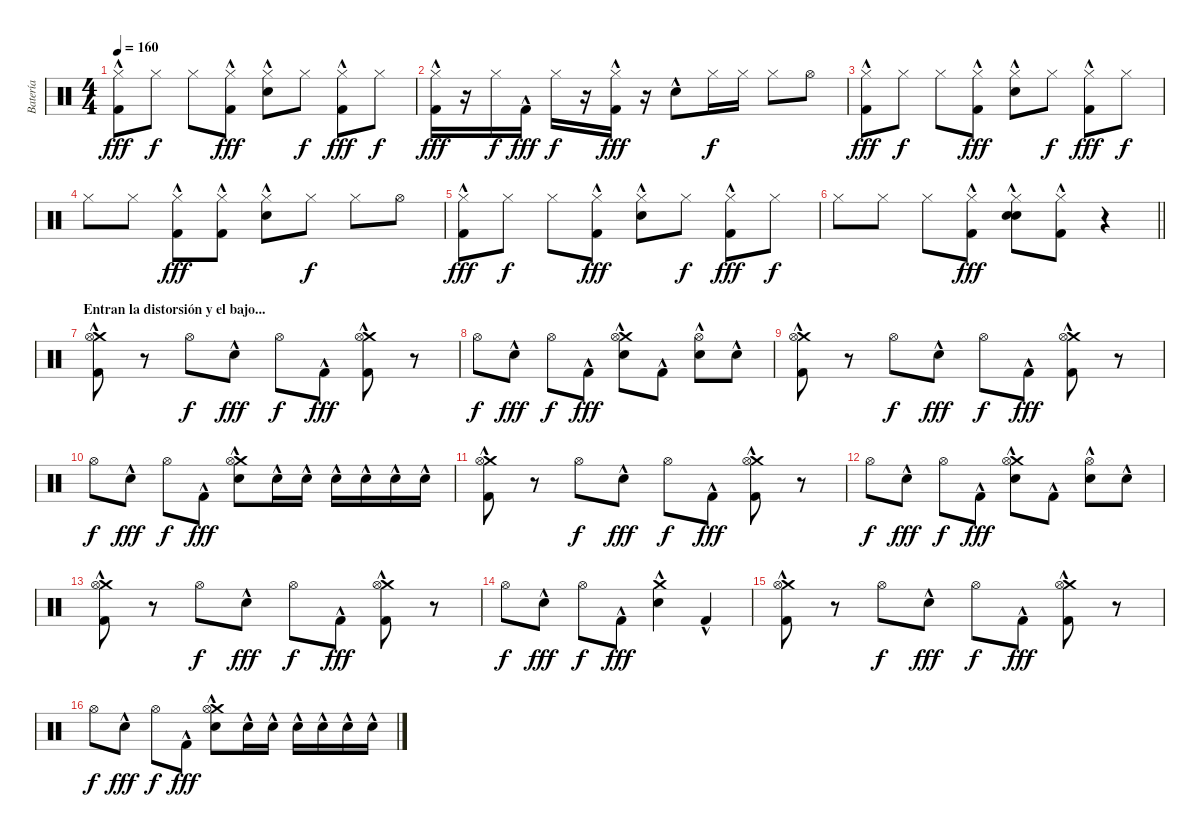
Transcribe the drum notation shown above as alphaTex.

\track ("Batería" "Batería") {instrument percussion}
\staff {score}
\articulation defaults
\ts (4 4)
\tempo 160
\clef neutral
\ks c
("Hi-Hat (closed)" "Kick (hit) 2"{hac}).8{dy fff} "Hi-Hat (closed)".8{dy f} "Hi-Hat (closed)".8 ("Hi-Hat (closed)" "Kick (hit) 2"{hac}).8{dy fff} ("Snare (hit) 2"{hac} "Hi-Hat (closed)").8 "Hi-Hat (closed)".8{dy f} ("Hi-Hat (closed)" "Kick (hit) 2"{hac}).8{dy fff} "Hi-Hat (closed)".8{dy f} |
("Hi-Hat (closed)" "Kick (hit) 2"{hac}).16{dy fff} r.16 "Hi-Hat (closed)".16{dy f} "Kick (hit) 2"{hac}.16{dy fff} "Hi-Hat (closed)".16{dy f} r.16 ("Hi-Hat (closed)" "Kick (hit) 2"{hac}).16{dy fff} r.16 "Snare (hit) 2"{hac}.8 "Hi-Hat (closed)".16{dy f} "Hi-Hat (closed)".16 "Hi-Hat (closed)".8 "Hi-Hat (open)".8 |
("Hi-Hat (closed)" "Kick (hit) 2"{hac}).8{dy fff} "Hi-Hat (closed)".8{dy f} "Hi-Hat (closed)".8 ("Hi-Hat (closed)" "Kick (hit) 2"{hac}).8{dy fff} ("Snare (hit) 2"{hac} "Hi-Hat (closed)").8 "Hi-Hat (closed)".8{dy f} ("Hi-Hat (closed)" "Kick (hit) 2"{hac}).8{dy fff} "Hi-Hat (closed)".8{dy f} |
"Hi-Hat (closed)".8 "Hi-Hat (closed)".8 ("Hi-Hat (closed)" "Kick (hit) 2"{hac}).8{dy fff} ("Hi-Hat (closed)" "Kick (hit) 2"{hac}).8 ("Snare (hit) 2"{hac} "Hi-Hat (closed)").8 "Hi-Hat (closed)".8{dy f} "Hi-Hat (closed)".8 "Hi-Hat (open)".8 |
("Hi-Hat (closed)" "Kick (hit) 2"{hac}).8{dy fff} "Hi-Hat (closed)".8{dy f} "Hi-Hat (closed)".8 ("Hi-Hat (closed)" "Kick (hit) 2"{hac}).8{dy fff} ("Snare (hit) 2"{hac} "Hi-Hat (closed)").8 "Hi-Hat (closed)".8{dy f} ("Hi-Hat (closed)" "Kick (hit) 2"{hac}).8{dy fff} "Hi-Hat (closed)".8{dy f} |
\barLineRight lightlight "Hi-Hat (closed)".8 "Hi-Hat (closed)".8 "Hi-Hat (closed)".8
("Hi-Hat (closed)" "Kick (hit) 2"{hac}).8{dy fff} ("Snare (hit) 2"{hac} "Snare (hit) 2"{hac} "Hi-Hat (closed)").8 ("Hi-Hat (closed)" "Kick (hit) 2"{hac}).8 r.4 |
\section ("" "Entran la distorsión y el bajo...")
("Crash medium (hit)"{hac} "Hi-Hat (open)" "Kick (hit) 2"{hac}).8 r.8 "Hi-Hat (open)".8{dy f} "Snare (hit) 2"{hac}.8{dy fff} "Hi-Hat (open)".8{dy f} "Kick (hit) 2"{hac}.8{dy fff} ("Crash medium (hit)"{hac} "Hi-Hat (open)" "Kick (hit) 2"{hac}).8 r.8 |
"Hi-Hat (open)".8{dy f} "Snare (hit) 2"{hac}.8{dy fff} "Hi-Hat (open)".8{dy f} "Kick (hit) 2"{hac}.8{dy fff} ("Crash medium (hit)"{hac} "Snare (hit) 2"{hac} "Hi-Hat (open)").8 "Kick (hit) 2"{hac}.8 ("Snare (hit) 2"{hac} "Hi-Hat (open)").8 "Snare (hit) 2"{hac}.8 |
("Crash medium (hit)"{hac} "Hi-Hat (open)" "Kick (hit) 2"{hac}).8 r.8 "Hi-Hat (open)".8{dy f} "Snare (hit) 2"{hac}.8{dy fff} "Hi-Hat (open)".8{dy f} "Kick (hit) 2"{hac}.8{dy fff} ("Crash medium (hit)"{hac} "Hi-Hat (open)" "Kick (hit) 2"{hac}).8 r.8 |
"Hi-Hat (open)".8{dy f} "Snare (hit) 2"{hac}.8{dy fff} "Hi-Hat (open)".8{dy f} "Kick (hit) 2"{hac}.8{dy fff} ("Crash medium (hit)"{hac} "Snare (hit) 2"{hac} "Hi-Hat (open)").8 "Snare (hit) 2"{hac}.16 "Snare (hit) 2"{hac}.16 "Snare (hit) 2"{hac}.16 "Snare (hit) 2"{hac}.16 "Snare (hit) 2"{hac}.16 "Snare (hit) 2"{hac}.16 |
("Crash medium (hit)"{hac} "Hi-Hat (open)" "Kick (hit) 2"{hac}).8 r.8 "Hi-Hat (open)".8{dy f} "Snare (hit) 2"{hac}.8{dy fff} "Hi-Hat (open)".8{dy f} "Kick (hit) 2"{hac}.8{dy fff} ("Crash medium (hit)"{hac} "Hi-Hat (open)" "Kick (hit) 2"{hac}).8 r.8 |
"Hi-Hat (open)".8{dy f} "Snare (hit) 2"{hac}.8{dy fff} "Hi-Hat (open)".8{dy f} "Kick (hit) 2"{hac}.8{dy fff} ("Crash medium (hit)"{hac} "Snare (hit) 2"{hac} "Hi-Hat (open)").8 "Kick (hit) 2"{hac}.8 ("Snare (hit) 2"{hac} "Hi-Hat (open)").8 "Snare (hit) 2"{hac}.8 |
("Crash medium (hit)"{hac} "Hi-Hat (open)" "Kick (hit) 2"{hac}).8 r.8 "Hi-Hat (open)".8{dy f} "Snare (hit) 2"{hac}.8{dy fff} "Hi-Hat (open)".8{dy f} "Kick (hit) 2"{hac}.8{dy fff} ("Crash medium (hit)"{hac} "Hi-Hat (open)" "Kick (hit) 2"{hac}).8 r.8 |
"Hi-Hat (open)".8{dy f} "Snare (hit) 2"{hac}.8{dy fff} "Hi-Hat (open)".8{dy f} "Kick (hit) 2"{hac}.8{dy fff} ("Crash medium (hit)"{hac} "Snare (hit) 2"{hac}).4 "Kick (hit) 2"{hac}.4 |
("Crash medium (hit)"{hac} "Hi-Hat (open)" "Kick (hit) 2"{hac}).8 r.8 "Hi-Hat (open)".8{dy f} "Snare (hit) 2"{hac}.8{dy fff} "Hi-Hat (open)".8{dy f} "Kick (hit) 2"{hac}.8{dy fff} ("Crash medium (hit)"{hac} "Hi-Hat (open)" "Kick (hit) 2"{hac}).8 r.8 |
"Hi-Hat (open)".8{dy f} "Snare (hit) 2"{hac}.8{dy fff} "Hi-Hat (open)".8{dy f} "Kick (hit) 2"{hac}.8{dy fff} ("Crash medium (hit)"{hac} "Snare (hit) 2"{hac} "Hi-Hat (open)").8 "Snare (hit) 2"{hac}.16 "Snare (hit) 2"{hac}.16 "Snare (hit) 2"{hac}.16 "Snare (hit) 2"{hac}.16 "Snare (hit) 2"{hac}.16 "Snare (hit) 2"{hac}.16
